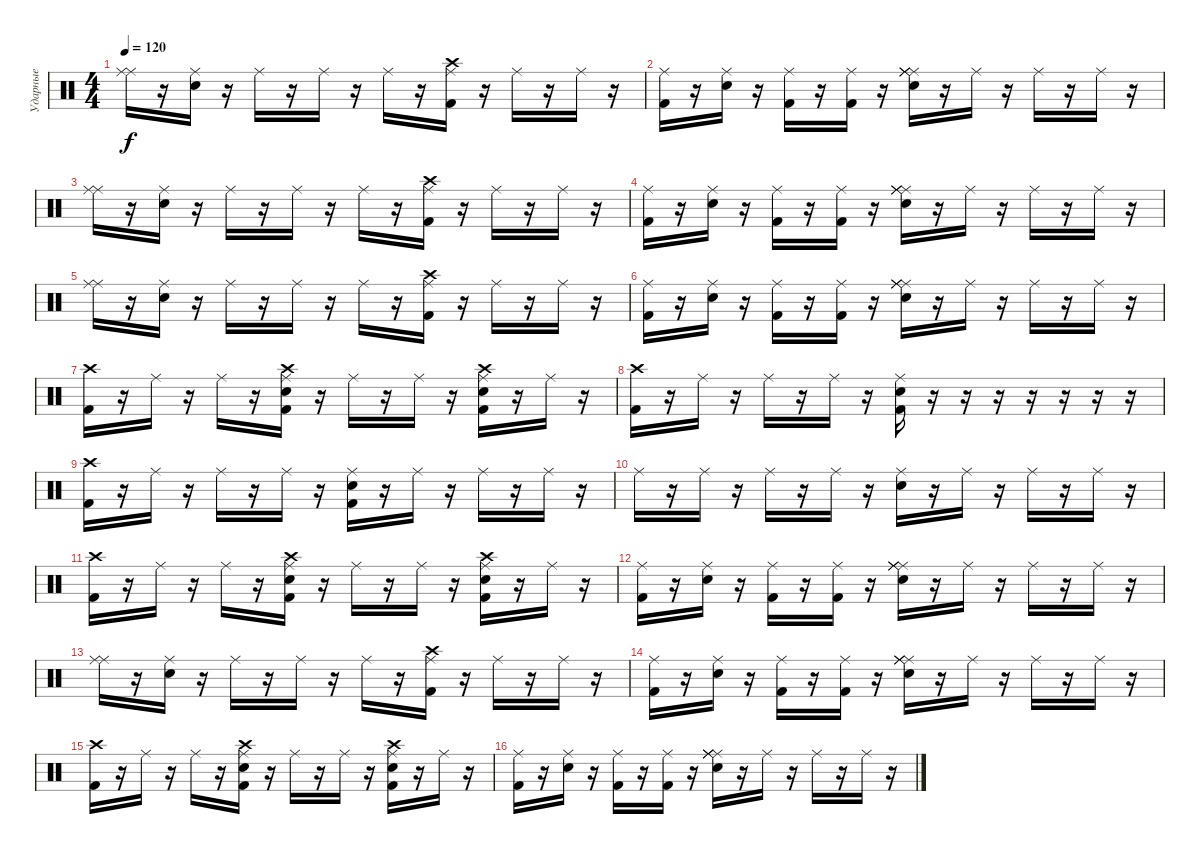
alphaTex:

\track ("Ударные" "Ударные") {instrument percussion}
\staff {score}
\articulation defaults
\ts (4 4)
\tempo 120
\clef neutral
\ks c
("Ride (middle)" "Ride (middle)").16{dy f} r.16 ("Ride (middle)" "Snare (hit) 2").16 r.16 "Ride (middle)".16 r.16 "Ride (middle)".16 r.16 "Ride (middle)".16 r.16 ("Ride (middle)" "Kick (hit) 2" "Crash high (hit)").16 r.16 "Ride (middle)".16 r.16 "Ride (middle)".16 r.16 |
("Ride (middle)" "Kick (hit) 2").16 r.16 ("Ride (middle)" "Snare (hit) 2").16 r.16 ("Ride (middle)" "Kick (hit) 2").16 r.16 ("Ride (middle)" "Kick (hit) 2").16 r.16 ("Ride (middle)" "Ride (middle)" "Ride (middle)" "Ride (middle)" "Snare (hit) 2").16 r.16 "Ride (middle)".16 r.16 "Ride (middle)".16 r.16 "Ride (middle)".16 r.16 |
("Ride (middle)" "Ride (middle)").16 r.16 ("Ride (middle)" "Snare (hit) 2").16 r.16 "Ride (middle)".16 r.16 "Ride (middle)".16 r.16 "Ride (middle)".16 r.16 ("Ride (middle)" "Kick (hit) 2" "Crash high (hit)").16 r.16 "Ride (middle)".16 r.16 "Ride (middle)".16 r.16 |
("Ride (middle)" "Kick (hit) 2").16 r.16 ("Ride (middle)" "Snare (hit) 2").16 r.16 ("Ride (middle)" "Kick (hit) 2").16 r.16 ("Ride (middle)" "Kick (hit) 2").16 r.16 ("Ride (middle)" "Ride (middle)" "Ride (middle)" "Ride (middle)" "Snare (hit) 2").16 r.16 "Ride (middle)".16 r.16 "Ride (middle)".16 r.16 "Ride (middle)".16 r.16 |
("Ride (middle)" "Ride (middle)").16 r.16 ("Ride (middle)" "Snare (hit) 2").16 r.16 "Ride (middle)".16 r.16 "Ride (middle)".16 r.16 "Ride (middle)".16 r.16 ("Ride (middle)" "Kick (hit) 2" "Crash high (hit)").16 r.16 "Ride (middle)".16 r.16 "Ride (middle)".16 r.16 |
("Ride (middle)" "Kick (hit) 2").16 r.16 ("Ride (middle)" "Snare (hit) 2").16 r.16 ("Ride (middle)" "Kick (hit) 2").16 r.16 ("Ride (middle)" "Kick (hit) 2").16 r.16 ("Ride (middle)" "Ride (middle)" "Ride (middle)" "Ride (middle)" "Snare (hit) 2").16 r.16 "Ride (middle)".16 r.16 "Ride (middle)".16 r.16 "Ride (middle)".16 r.16 |
("Crash high (hit)" "Kick (hit) 2").16 r.16 "Ride (middle)".16 r.16 "Ride (middle)".16 r.16 ("Crash high (hit)" "Snare (hit) 2" "Kick (hit) 2" "Ride (middle)").16 r.16 "Ride (middle)".16 r.16 "Ride (middle)".16 r.16 ("Crash high (hit)" "Kick (hit) 2" "Snare (hit) 2" "Ride (middle)").16 r.16 "Ride (middle)".16 r.16 |
("Kick (hit) 2" "Crash high (hit)").16 r.16 "Ride (middle)".16 r.16 "Ride (middle)".16 r.16 "Ride (middle)".16 r.16 ("Snare (hit) 2" "Ride (middle)" "Kick (hit) 2").16 r.16 r.16 r.16 r.16 r.16 r.16 r.16 |
("Kick (hit) 2" "Crash high (hit)").16 r.16 "Ride (middle)".16 r.16 "Ride (middle)".16 r.16 "Ride (middle)".16 r.16 ("Snare (hit) 2" "Ride (middle)" "Kick (hit) 2").16 r.16 "Ride (middle)".16 r.16 "Ride (middle)".16 r.16 "Ride (middle)".16 r.16 |
"Ride (middle)".16 r.16 "Ride (middle)".16 r.16 "Ride (middle)".16 r.16 "Ride (middle)".16 r.16 ("Snare (hit) 2" "Ride (middle)").16 r.16 "Ride (middle)".16 r.16 "Ride (middle)".16 r.16 "Ride (middle)".16 r.16 |
("Crash high (hit)" "Kick (hit) 2").16 r.16 "Ride (middle)".16 r.16 "Ride (middle)".16 r.16 ("Crash high (hit)" "Snare (hit) 2" "Kick (hit) 2" "Ride (middle)").16 r.16 "Ride (middle)".16 r.16 "Ride (middle)".16 r.16 ("Crash high (hit)" "Kick (hit) 2" "Snare (hit) 2" "Ride (middle)").16 r.16 "Ride (middle)".16 r.16 |
("Ride (middle)" "Kick (hit) 2").16 r.16 ("Ride (middle)" "Snare (hit) 2").16 r.16 ("Ride (middle)" "Kick (hit) 2").16 r.16 ("Ride (middle)" "Kick (hit) 2").16 r.16 ("Ride (middle)" "Ride (middle)" "Ride (middle)" "Ride (middle)" "Snare (hit) 2").16 r.16 "Ride (middle)".16 r.16 "Ride (middle)".16 r.16 "Ride (middle)".16 r.16 |
("Ride (middle)" "Ride (middle)").16 r.16 ("Ride (middle)" "Snare (hit) 2").16 r.16 "Ride (middle)".16 r.16 "Ride (middle)".16 r.16 "Ride (middle)".16 r.16 ("Ride (middle)" "Kick (hit) 2" "Crash high (hit)").16 r.16 "Ride (middle)".16 r.16 "Ride (middle)".16 r.16 |
("Ride (middle)" "Kick (hit) 2").16 r.16 ("Ride (middle)" "Snare (hit) 2").16 r.16 ("Ride (middle)" "Kick (hit) 2").16 r.16 ("Ride (middle)" "Kick (hit) 2").16 r.16 ("Ride (middle)" "Ride (middle)" "Ride (middle)" "Ride (middle)" "Snare (hit) 2").16 r.16 "Ride (middle)".16 r.16 "Ride (middle)".16 r.16 "Ride (middle)".16 r.16 |
("Crash high (hit)" "Kick (hit) 2").16 r.16 "Ride (middle)".16 r.16 "Ride (middle)".16 r.16 ("Crash high (hit)" "Snare (hit) 2" "Kick (hit) 2" "Ride (middle)").16 r.16 "Ride (middle)".16 r.16 "Ride (middle)".16 r.16 ("Crash high (hit)" "Kick (hit) 2" "Snare (hit) 2" "Ride (middle)").16 r.16 "Ride (middle)".16 r.16 |
("Ride (middle)" "Kick (hit) 2").16 r.16 ("Ride (middle)" "Snare (hit) 2").16 r.16 ("Ride (middle)" "Kick (hit) 2").16 r.16 ("Ride (middle)" "Kick (hit) 2").16 r.16 ("Ride (middle)" "Ride (middle)" "Ride (middle)" "Ride (middle)" "Snare (hit) 2").16 r.16 "Ride (middle)".16 r.16 "Ride (middle)".16 r.16 "Ride (middle)".16 r.16
